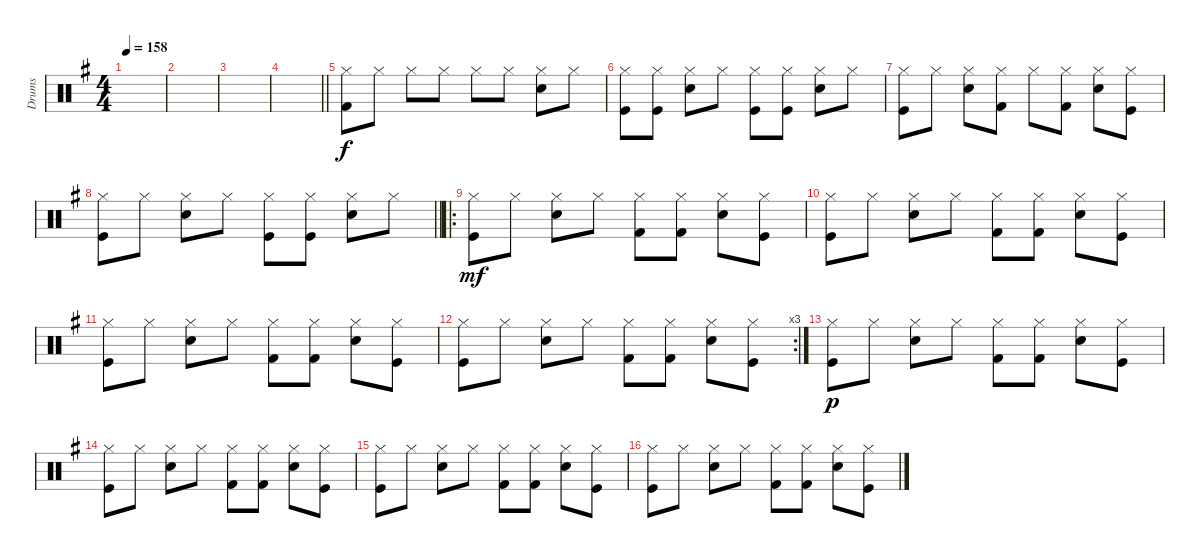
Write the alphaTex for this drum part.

\track ("Drums" "Drums") {instrument percussion}
\staff {score}
\articulation defaults
\ts (4 4)
\tempo 158
\clef neutral
\ks g
|
|
|
\barLineRight lightlight
|
("Hi-Hat (closed)" "Kick (hit) 2").8 "Hi-Hat (closed)".8 "Hi-Hat (closed)".8 "Hi-Hat (closed)".8 "Hi-Hat (closed)".8 "Hi-Hat (closed)".8 ("Hi-Hat (closed)" "Snare (hit) 2").8 "Hi-Hat (closed)".8 |
("Hi-Hat (closed)" "Kick (hit)").8 ("Hi-Hat (closed)" "Kick (hit)").8 ("Hi-Hat (closed)" "Snare (hit) 2").8 "Hi-Hat (closed)".8 ("Hi-Hat (closed)" "Kick (hit)").8 ("Hi-Hat (closed)" "Kick (hit)").8 ("Hi-Hat (closed)" "Snare (hit) 2").8 "Hi-Hat (closed)".8 |
("Hi-Hat (closed)" "Kick (hit)").8 "Hi-Hat (closed)".8 ("Hi-Hat (closed)" "Snare (hit) 2").8 ("Hi-Hat (closed)" "Kick (hit) 2").8 "Hi-Hat (closed)".8 ("Hi-Hat (closed)" "Kick (hit) 2").8 ("Hi-Hat (closed)" "Snare (hit) 2").8 ("Hi-Hat (closed)" "Kick (hit)").8 |
\barLineRight lightlight
("Hi-Hat (closed)" "Kick (hit)").8 "Hi-Hat (closed)".8 ("Hi-Hat (closed)" "Snare (hit) 2").8 "Hi-Hat (closed)".8 ("Hi-Hat (closed)" "Kick (hit)").8 ("Hi-Hat (closed)" "Kick (hit)").8 ("Hi-Hat (closed)" "Snare (hit) 2").8 "Hi-Hat (closed)".8 |
\ro
("Hi-Hat (closed)" "Kick (hit)").8{dy mf} "Hi-Hat (closed)".8 ("Hi-Hat (closed)" "Snare (hit) 2").8 "Hi-Hat (closed)".8 ("Hi-Hat (closed)" "Kick (hit) 2").8 ("Hi-Hat (closed)" "Kick (hit) 2").8 ("Hi-Hat (closed)" "Snare (hit) 2").8 ("Hi-Hat (closed)" "Kick (hit)").8 |
("Hi-Hat (closed)" "Kick (hit)").8 "Hi-Hat (closed)".8 ("Hi-Hat (closed)" "Snare (hit) 2").8 "Hi-Hat (closed)".8 ("Hi-Hat (closed)" "Kick (hit) 2").8 ("Hi-Hat (closed)" "Kick (hit) 2").8 ("Hi-Hat (closed)" "Snare (hit) 2").8 ("Hi-Hat (closed)" "Kick (hit)").8 |
("Hi-Hat (closed)" "Kick (hit)").8 "Hi-Hat (closed)".8 ("Hi-Hat (closed)" "Snare (hit) 2").8 "Hi-Hat (closed)".8 ("Hi-Hat (closed)" "Kick (hit) 2").8 ("Hi-Hat (closed)" "Kick (hit) 2").8 ("Hi-Hat (closed)" "Snare (hit) 2").8 ("Hi-Hat (closed)" "Kick (hit)").8 |
\rc 3
("Hi-Hat (closed)" "Kick (hit)").8 "Hi-Hat (closed)".8 ("Hi-Hat (closed)" "Snare (hit) 2").8 "Hi-Hat (closed)".8 ("Hi-Hat (closed)" "Kick (hit) 2").8 ("Hi-Hat (closed)" "Kick (hit) 2").8 ("Hi-Hat (closed)" "Snare (hit) 2").8 ("Hi-Hat (closed)" "Kick (hit)").8 |
("Hi-Hat (closed)" "Kick (hit)").8{dy p} "Hi-Hat (closed)".8 ("Hi-Hat (closed)" "Snare (hit) 2").8 "Hi-Hat (closed)".8 ("Hi-Hat (closed)" "Kick (hit) 2").8 ("Hi-Hat (closed)" "Kick (hit) 2").8 ("Hi-Hat (closed)" "Snare (hit) 2").8 ("Hi-Hat (closed)" "Kick (hit)").8 |
("Hi-Hat (closed)" "Kick (hit)").8 "Hi-Hat (closed)".8 ("Hi-Hat (closed)" "Snare (hit) 2").8 "Hi-Hat (closed)".8 ("Hi-Hat (closed)" "Kick (hit) 2").8 ("Hi-Hat (closed)" "Kick (hit) 2").8 ("Hi-Hat (closed)" "Snare (hit) 2").8 ("Hi-Hat (closed)" "Kick (hit)").8 |
("Hi-Hat (closed)" "Kick (hit)").8 "Hi-Hat (closed)".8 ("Hi-Hat (closed)" "Snare (hit) 2").8 "Hi-Hat (closed)".8 ("Hi-Hat (closed)" "Kick (hit) 2").8 ("Hi-Hat (closed)" "Kick (hit) 2").8 ("Hi-Hat (closed)" "Snare (hit) 2").8 ("Hi-Hat (closed)" "Kick (hit)").8 |
("Hi-Hat (closed)" "Kick (hit)").8 "Hi-Hat (closed)".8 ("Hi-Hat (closed)" "Snare (hit) 2").8 "Hi-Hat (closed)".8 ("Hi-Hat (closed)" "Kick (hit) 2").8 ("Hi-Hat (closed)" "Kick (hit) 2").8 ("Hi-Hat (closed)" "Snare (hit) 2").8 ("Hi-Hat (closed)" "Kick (hit)").8
